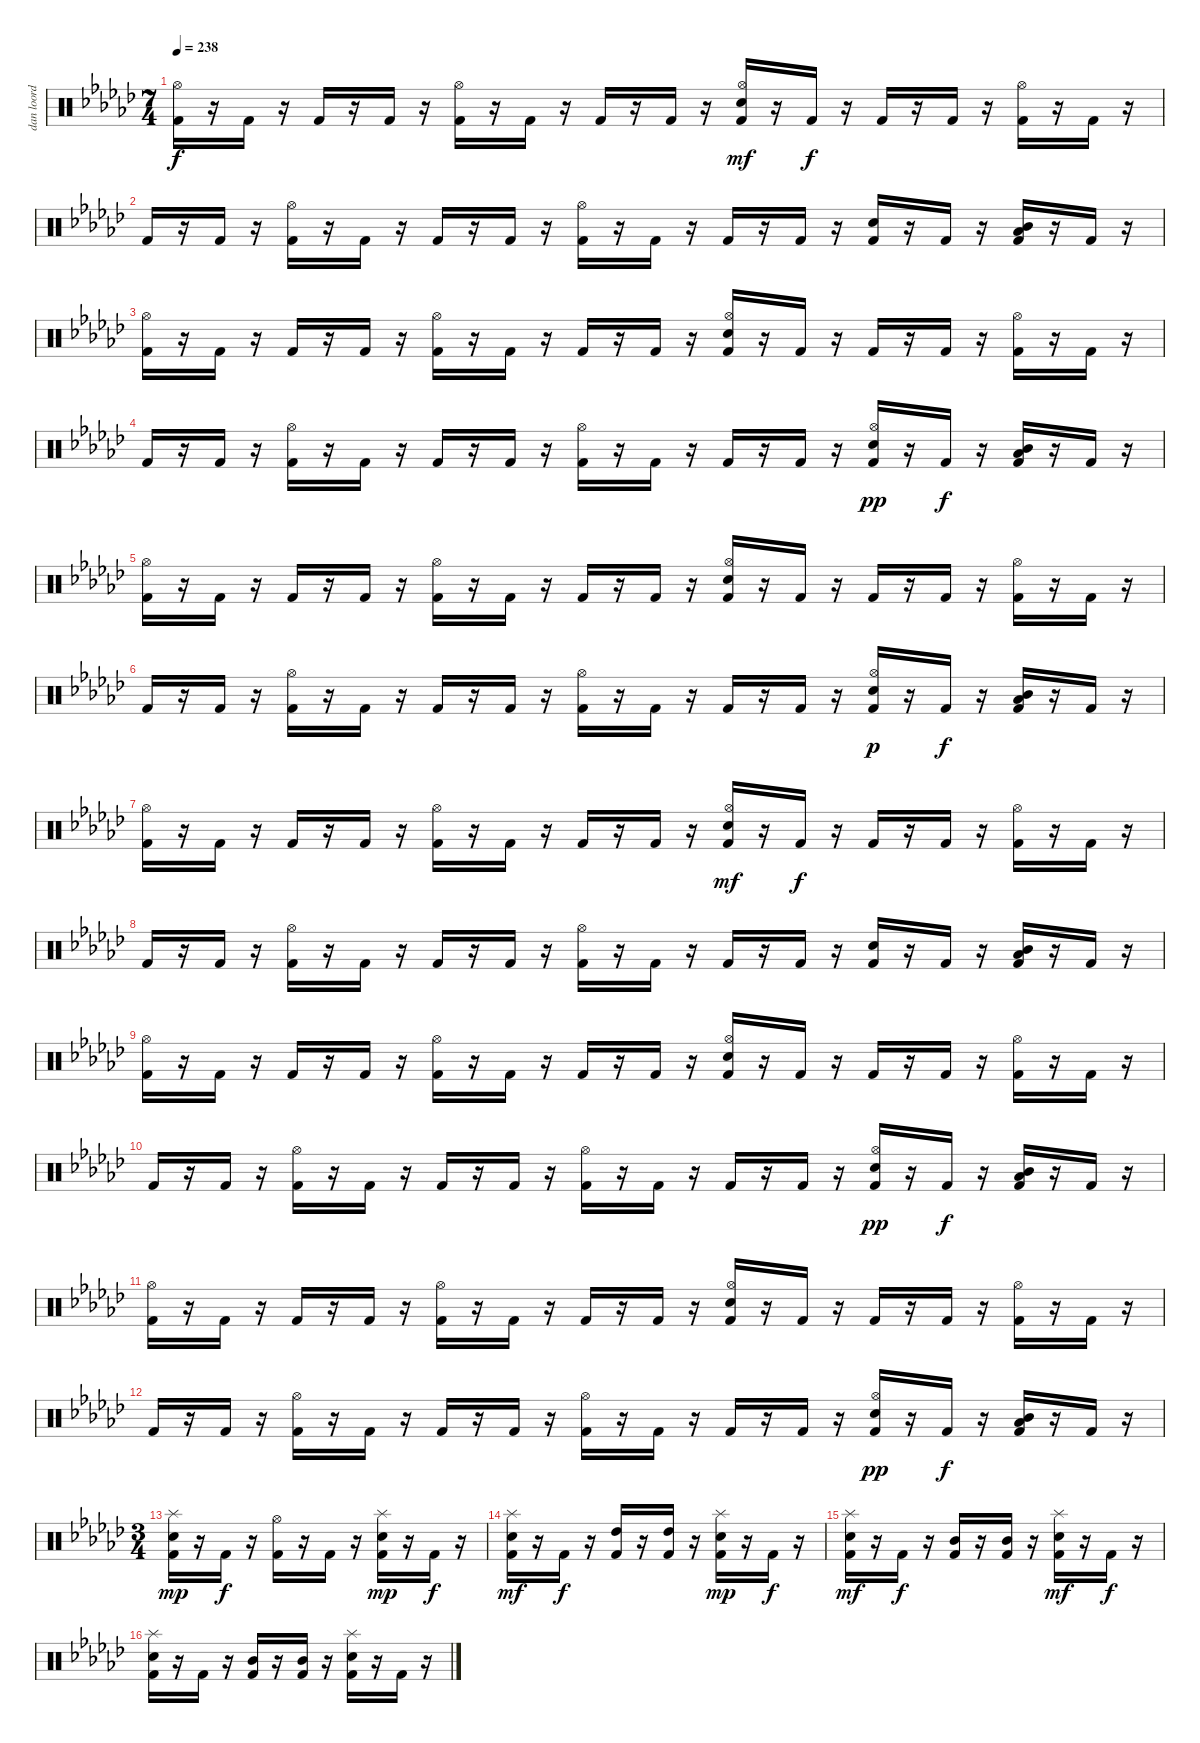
\track ("dan loord foord" "dan loord ") {instrument percussion}
\staff {score}
\articulation defaults
\ts (7 4)
\tempo 238
\clef neutral
\ks gb
("Kick (hit) 2" "Hi-Hat (open)").16{dy f} r.16 "Kick (hit) 2".16 r.16 "Kick (hit) 2".16 r.16 "Kick (hit) 2".16 r.16 ("Kick (hit) 2" "Hi-Hat (open)").16 r.16 "Kick (hit) 2".16 r.16 "Kick (hit) 2".16 r.16 "Kick (hit) 2".16 r.16 ("Kick (hit) 2" "Snare (hit) 2" "Hi-Hat (open)").16{dy mf} r.16 "Kick (hit) 2".16{dy f} r.16 "Kick (hit) 2".16 r.16 "Kick (hit) 2".16 r.16 ("Kick (hit) 2" "Hi-Hat (open)").16 r.16 "Kick (hit) 2".16 r.16 |
"Kick (hit) 2".16 r.16 "Kick (hit) 2".16 r.16 ("Kick (hit) 2" "Hi-Hat (open)").16 r.16 "Kick (hit) 2".16 r.16 "Kick (hit) 2".16 r.16 "Kick (hit) 2".16 r.16 ("Kick (hit) 2" "Hi-Hat (open)").16 r.16 "Kick (hit) 2".16 r.16 "Kick (hit) 2".16 r.16 "Kick (hit) 2".16 r.16 ("Kick (hit) 2" "Snare (hit) 2").16 r.16 "Kick (hit) 2".16 r.16 ("Kick (hit) 2" "Low Floor Tom (hit)" "Mid Tom (hit)").16 r.16 "Kick (hit) 2".16 r.16 |
("Kick (hit) 2" "Hi-Hat (open)").16 r.16 "Kick (hit) 2".16 r.16 "Kick (hit) 2".16 r.16 "Kick (hit) 2".16 r.16 ("Kick (hit) 2" "Hi-Hat (open)").16 r.16 "Kick (hit) 2".16 r.16 "Kick (hit) 2".16 r.16 "Kick (hit) 2".16 r.16 ("Kick (hit) 2" "Snare (hit) 2" "Hi-Hat (open)").16 r.16 "Kick (hit) 2".16 r.16 "Kick (hit) 2".16 r.16 "Kick (hit) 2".16 r.16 ("Kick (hit) 2" "Hi-Hat (open)").16 r.16 "Kick (hit) 2".16 r.16 |
"Kick (hit) 2".16 r.16 "Kick (hit) 2".16 r.16 ("Kick (hit) 2" "Hi-Hat (open)").16 r.16 "Kick (hit) 2".16 r.16 "Kick (hit) 2".16 r.16 "Kick (hit) 2".16 r.16 ("Kick (hit) 2" "Hi-Hat (open)").16 r.16 "Kick (hit) 2".16 r.16 "Kick (hit) 2".16 r.16 "Kick (hit) 2".16 r.16 ("Kick (hit) 2" "Snare (hit) 2" "Hi-Hat (open)").16{dy pp} r.16 "Kick (hit) 2".16{dy f} r.16 ("Kick (hit) 2" "Low Floor Tom (hit)" "Mid Tom (hit)").16 r.16 "Kick (hit) 2".16 r.16 |
("Kick (hit) 2" "Hi-Hat (open)").16 r.16 "Kick (hit) 2".16 r.16 "Kick (hit) 2".16 r.16 "Kick (hit) 2".16 r.16 ("Kick (hit) 2" "Hi-Hat (open)").16 r.16 "Kick (hit) 2".16 r.16 "Kick (hit) 2".16 r.16 "Kick (hit) 2".16 r.16 ("Kick (hit) 2" "Snare (hit) 2" "Hi-Hat (open)").16 r.16 "Kick (hit) 2".16 r.16 "Kick (hit) 2".16 r.16 "Kick (hit) 2".16 r.16 ("Kick (hit) 2" "Hi-Hat (open)").16 r.16 "Kick (hit) 2".16 r.16 |
"Kick (hit) 2".16 r.16 "Kick (hit) 2".16 r.16 ("Kick (hit) 2" "Hi-Hat (open)").16 r.16 "Kick (hit) 2".16 r.16 "Kick (hit) 2".16 r.16 "Kick (hit) 2".16 r.16 ("Kick (hit) 2" "Hi-Hat (open)").16 r.16 "Kick (hit) 2".16 r.16 "Kick (hit) 2".16 r.16 "Kick (hit) 2".16 r.16 ("Kick (hit) 2" "Snare (hit) 2" "Hi-Hat (open)").16{dy p} r.16 "Kick (hit) 2".16{dy f} r.16 ("Kick (hit) 2" "Low Floor Tom (hit)" "Mid Tom (hit)").16 r.16 "Kick (hit) 2".16 r.16 |
("Kick (hit) 2" "Hi-Hat (open)").16 r.16 "Kick (hit) 2".16 r.16 "Kick (hit) 2".16 r.16 "Kick (hit) 2".16 r.16 ("Kick (hit) 2" "Hi-Hat (open)").16 r.16 "Kick (hit) 2".16 r.16 "Kick (hit) 2".16 r.16 "Kick (hit) 2".16 r.16 ("Kick (hit) 2" "Snare (hit) 2" "Hi-Hat (open)").16{dy mf} r.16 "Kick (hit) 2".16{dy f} r.16 "Kick (hit) 2".16 r.16 "Kick (hit) 2".16 r.16 ("Kick (hit) 2" "Hi-Hat (open)").16 r.16 "Kick (hit) 2".16 r.16 |
"Kick (hit) 2".16 r.16 "Kick (hit) 2".16 r.16 ("Kick (hit) 2" "Hi-Hat (open)").16 r.16 "Kick (hit) 2".16 r.16 "Kick (hit) 2".16 r.16 "Kick (hit) 2".16 r.16 ("Kick (hit) 2" "Hi-Hat (open)").16 r.16 "Kick (hit) 2".16 r.16 "Kick (hit) 2".16 r.16 "Kick (hit) 2".16 r.16 ("Kick (hit) 2" "Snare (hit) 2").16 r.16 "Kick (hit) 2".16 r.16 ("Kick (hit) 2" "Low Floor Tom (hit)" "Mid Tom (hit)").16 r.16 "Kick (hit) 2".16 r.16 |
("Kick (hit) 2" "Hi-Hat (open)").16 r.16 "Kick (hit) 2".16 r.16 "Kick (hit) 2".16 r.16 "Kick (hit) 2".16 r.16 ("Kick (hit) 2" "Hi-Hat (open)").16 r.16 "Kick (hit) 2".16 r.16 "Kick (hit) 2".16 r.16 "Kick (hit) 2".16 r.16 ("Kick (hit) 2" "Snare (hit) 2" "Hi-Hat (open)").16 r.16 "Kick (hit) 2".16 r.16 "Kick (hit) 2".16 r.16 "Kick (hit) 2".16 r.16 ("Kick (hit) 2" "Hi-Hat (open)").16 r.16 "Kick (hit) 2".16 r.16 |
"Kick (hit) 2".16 r.16 "Kick (hit) 2".16 r.16 ("Kick (hit) 2" "Hi-Hat (open)").16 r.16 "Kick (hit) 2".16 r.16 "Kick (hit) 2".16 r.16 "Kick (hit) 2".16 r.16 ("Kick (hit) 2" "Hi-Hat (open)").16 r.16 "Kick (hit) 2".16 r.16 "Kick (hit) 2".16 r.16 "Kick (hit) 2".16 r.16 ("Kick (hit) 2" "Snare (hit) 2" "Hi-Hat (open)").16{dy pp} r.16 "Kick (hit) 2".16{dy f} r.16 ("Kick (hit) 2" "Low Floor Tom (hit)" "Mid Tom (hit)").16 r.16 "Kick (hit) 2".16 r.16 |
("Kick (hit) 2" "Hi-Hat (open)").16 r.16 "Kick (hit) 2".16 r.16 "Kick (hit) 2".16 r.16 "Kick (hit) 2".16 r.16 ("Kick (hit) 2" "Hi-Hat (open)").16 r.16 "Kick (hit) 2".16 r.16 "Kick (hit) 2".16 r.16 "Kick (hit) 2".16 r.16 ("Kick (hit) 2" "Snare (hit) 2" "Hi-Hat (open)").16 r.16 "Kick (hit) 2".16 r.16 "Kick (hit) 2".16 r.16 "Kick (hit) 2".16 r.16 ("Kick (hit) 2" "Hi-Hat (open)").16 r.16 "Kick (hit) 2".16 r.16 |
"Kick (hit) 2".16 r.16 "Kick (hit) 2".16 r.16 ("Kick (hit) 2" "Hi-Hat (open)").16 r.16 "Kick (hit) 2".16 r.16 "Kick (hit) 2".16 r.16 "Kick (hit) 2".16 r.16 ("Kick (hit) 2" "Hi-Hat (open)").16 r.16 "Kick (hit) 2".16 r.16 "Kick (hit) 2".16 r.16 "Kick (hit) 2".16 r.16 ("Kick (hit) 2" "Snare (hit) 2" "Hi-Hat (open)").16{dy pp} r.16 "Kick (hit) 2".16{dy f} r.16 ("Kick (hit) 2" "Low Floor Tom (hit)" "Mid Tom (hit)").16 r.16 "Kick (hit) 2".16 r.16 |
\ts (3 4)
("Kick (hit) 2" "Snare (hit) 2" "Splash (hit)").16{dy mp} r.16 "Kick (hit) 2".16{dy f} r.16 ("Kick (hit) 2" "Hi-Hat (open)").16 r.16 "Kick (hit) 2".16 r.16 ("Kick (hit) 2" "Snare (hit) 2" "Splash (hit)").16{dy mp} r.16 "Kick (hit) 2".16{dy f} r.16 |
("Kick (hit) 2" "Snare (hit) 2" "Splash (hit)").16{dy mf} r.16 "Kick (hit) 2".16{dy f} r.16 ("Kick (hit) 2" "High Tom (hit)").16 r.16 ("Kick (hit) 2" "High Tom (hit)").16 r.16 ("Kick (hit) 2" "Snare (hit) 2" "Splash (hit)").16{dy mp} r.16 "Kick (hit) 2".16{dy f} r.16 |
("Kick (hit) 2" "Snare (hit) 2" "Splash (hit)").16{dy mf} r.16 "Kick (hit) 2".16{dy f} r.16 ("Kick (hit) 2" "Mid Tom (hit)").16 r.16 ("Kick (hit) 2" "Mid Tom (hit)").16 r.16 ("Kick (hit) 2" "Snare (hit) 2" "Splash (hit)").16{dy mf} r.16 "Kick (hit) 2".16{dy f} r.16 |
("Kick (hit) 2" "Snare (hit) 2" "Splash (hit)").16 r.16 "Kick (hit) 2".16 r.16 ("Kick (hit) 2" "Mid Tom (hit)").16 r.16 ("Kick (hit) 2" "Mid Tom (hit)").16 r.16 ("Kick (hit) 2" "Snare (hit) 2" "Splash (hit)").16 r.16 "Kick (hit) 2".16 r.16
